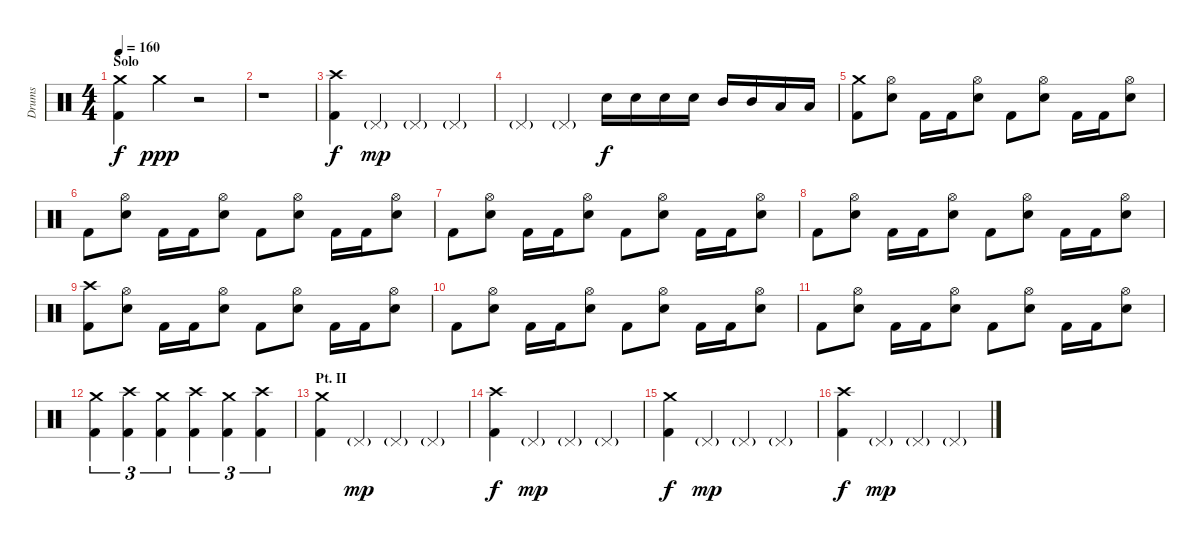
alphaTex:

\track ("Drums" "Drums") {instrument percussion}
\staff {score}
\articulation defaults
\ts (4 4)
\section ("" "Solo")
\tempo 160
\clef neutral
\ks c
("Crash medium (hit)" "Kick (hit) 2").4{dy f} "Crash medium (hit)".4{dy ppp} r.2 |
r.1 |
("Crash high (hit)" "Kick (hit) 2").4{dy f} "Pedal Hi-Hat (hit)"{g}.4{dy mp} "Pedal Hi-Hat (hit)"{g}.4 "Pedal Hi-Hat (hit)"{g}.4 |
"Pedal Hi-Hat (hit)"{g}.4 "Pedal Hi-Hat (hit)"{g}.4 "Snare (hit) 2".16{dy f} "Snare (hit) 2".16 "Snare (hit) 2".16 "Snare (hit) 2".16 "Mid Tom (hit)".16 "Mid Tom (hit)".16 "Low Tom (hit)".16 "Low Tom (hit)".16 |
("Crash medium (hit)" "Kick (hit) 2").8 ("Hi-Hat (open)" "Snare (hit) 2").8 "Kick (hit) 2".16 "Kick (hit) 2".16 ("Hi-Hat (open)" "Snare (hit) 2").8 "Kick (hit) 2".8 ("Hi-Hat (open)" "Snare (hit) 2").8 "Kick (hit) 2".16 "Kick (hit) 2".16 ("Hi-Hat (open)" "Snare (hit) 2").8 |
"Kick (hit) 2".8 ("Hi-Hat (open)" "Snare (hit) 2").8 "Kick (hit) 2".16 "Kick (hit) 2".16 ("Hi-Hat (open)" "Snare (hit) 2").8 "Kick (hit) 2".8 ("Hi-Hat (open)" "Snare (hit) 2").8 "Kick (hit) 2".16 "Kick (hit) 2".16 ("Hi-Hat (open)" "Snare (hit) 2").8 |
"Kick (hit) 2".8 ("Hi-Hat (open)" "Snare (hit) 2").8 "Kick (hit) 2".16 "Kick (hit) 2".16 ("Hi-Hat (open)" "Snare (hit) 2").8 "Kick (hit) 2".8 ("Hi-Hat (open)" "Snare (hit) 2").8 "Kick (hit) 2".16 "Kick (hit) 2".16 ("Hi-Hat (open)" "Snare (hit) 2").8 |
"Kick (hit) 2".8 ("Hi-Hat (open)" "Snare (hit) 2").8 "Kick (hit) 2".16 "Kick (hit) 2".16 ("Hi-Hat (open)" "Snare (hit) 2").8 "Kick (hit) 2".8 ("Hi-Hat (open)" "Snare (hit) 2").8 "Kick (hit) 2".16 "Kick (hit) 2".16 ("Hi-Hat (open)" "Snare (hit) 2").8 |
("Crash high (hit)" "Kick (hit) 2").8 ("Hi-Hat (open)" "Snare (hit) 2").8 "Kick (hit) 2".16 "Kick (hit) 2".16 ("Hi-Hat (open)" "Snare (hit) 2").8 "Kick (hit) 2".8 ("Hi-Hat (open)" "Snare (hit) 2").8 "Kick (hit) 2".16 "Kick (hit) 2".16 ("Hi-Hat (open)" "Snare (hit) 2").8 |
"Kick (hit) 2".8 ("Hi-Hat (open)" "Snare (hit) 2").8 "Kick (hit) 2".16 "Kick (hit) 2".16 ("Hi-Hat (open)" "Snare (hit) 2").8 "Kick (hit) 2".8 ("Hi-Hat (open)" "Snare (hit) 2").8 "Kick (hit) 2".16 "Kick (hit) 2".16 ("Hi-Hat (open)" "Snare (hit) 2").8 |
"Kick (hit) 2".8 ("Hi-Hat (open)" "Snare (hit) 2").8 "Kick (hit) 2".16 "Kick (hit) 2".16 ("Hi-Hat (open)" "Snare (hit) 2").8 "Kick (hit) 2".8 ("Hi-Hat (open)" "Snare (hit) 2").8 "Kick (hit) 2".16 "Kick (hit) 2".16 ("Hi-Hat (open)" "Snare (hit) 2").8 |
("Crash medium (hit)" "Kick (hit) 2").4{tu (3 2)} ("Crash high (hit)" "Kick (hit) 2").4{tu (3 2)} ("Crash medium (hit)" "Kick (hit) 2").4{tu (3 2)} ("Crash high (hit)" "Kick (hit) 2").4{tu (3 2)} ("Crash medium (hit)" "Kick (hit) 2").4{tu (3 2)} ("Crash high (hit)" "Kick (hit) 2").4{tu (3 2)} |
\section ("" "Pt. II")
("Crash medium (hit)" "Kick (hit) 2").4 "Pedal Hi-Hat (hit)"{g}.4{dy mp} "Pedal Hi-Hat (hit)"{g}.4 "Pedal Hi-Hat (hit)"{g}.4 |
("Crash high (hit)" "Kick (hit) 2").4{dy f} "Pedal Hi-Hat (hit)"{g}.4{dy mp} "Pedal Hi-Hat (hit)"{g}.4 "Pedal Hi-Hat (hit)"{g}.4 |
("Crash medium (hit)" "Kick (hit) 2").4{dy f} "Pedal Hi-Hat (hit)"{g}.4{dy mp} "Pedal Hi-Hat (hit)"{g}.4 "Pedal Hi-Hat (hit)"{g}.4 |
("Crash high (hit)" "Kick (hit) 2").4{dy f} "Pedal Hi-Hat (hit)"{g}.4{dy mp} "Pedal Hi-Hat (hit)"{g}.4 "Pedal Hi-Hat (hit)"{g}.4
